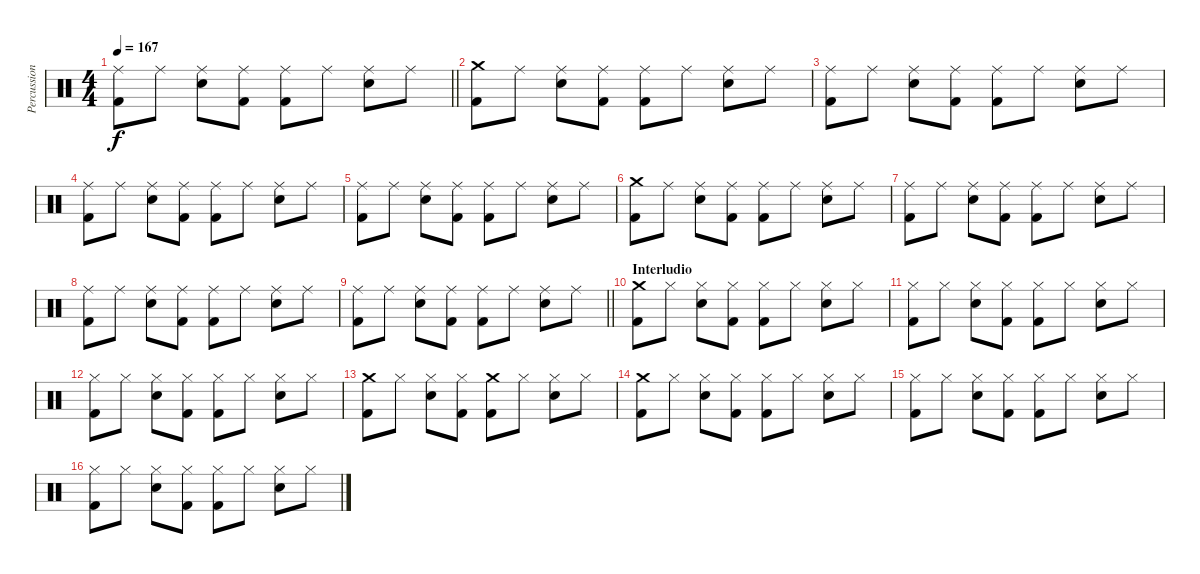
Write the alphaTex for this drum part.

\track ("Percussion" "Percussion") {instrument percussion}
\staff {score}
\articulation defaults
\ts (4 4)
\tempo 167
\clef neutral
\barLineRight lightlight
\ks c
("Ride (middle)" "Kick (hit) 2").8{dy f} "Ride (middle)".8 ("Ride (middle)" "Snare (hit) 2").8 ("Ride (middle)" "Kick (hit) 2").8 ("Ride (middle)" "Kick (hit) 2").8 "Ride (middle)".8 ("Ride (middle)" "Snare (hit) 2").8 "Ride (middle)".8 |
("Crash medium (hit)" "Kick (hit) 2").8 "Ride (middle)".8 ("Ride (middle)" "Snare (hit) 2").8 ("Ride (middle)" "Kick (hit) 2").8 ("Ride (middle)" "Kick (hit) 2").8 "Ride (middle)".8 ("Ride (middle)" "Snare (hit) 2").8 "Ride (middle)".8 |
("Ride (middle)" "Kick (hit) 2").8 "Ride (middle)".8 ("Ride (middle)" "Snare (hit) 2").8 ("Ride (middle)" "Kick (hit) 2").8 ("Ride (middle)" "Kick (hit) 2").8 "Ride (middle)".8 ("Ride (middle)" "Snare (hit) 2").8 "Ride (middle)".8 |
("Ride (middle)" "Kick (hit) 2").8 "Ride (middle)".8 ("Ride (middle)" "Snare (hit) 2").8 ("Ride (middle)" "Kick (hit) 2").8 ("Ride (middle)" "Kick (hit) 2").8 "Ride (middle)".8 ("Ride (middle)" "Snare (hit) 2").8 "Ride (middle)".8 |
("Ride (middle)" "Kick (hit) 2").8 "Ride (middle)".8 ("Ride (middle)" "Snare (hit) 2").8 ("Ride (middle)" "Kick (hit) 2").8 ("Ride (middle)" "Kick (hit) 2").8 "Ride (middle)".8 ("Ride (middle)" "Snare (hit) 2").8 "Ride (middle)".8 |
("Crash medium (hit)" "Kick (hit) 2").8 "Ride (middle)".8 ("Ride (middle)" "Snare (hit) 2").8 ("Ride (middle)" "Kick (hit) 2").8 ("Ride (middle)" "Kick (hit) 2").8 "Ride (middle)".8 ("Ride (middle)" "Snare (hit) 2").8 "Ride (middle)".8 |
("Ride (middle)" "Kick (hit) 2").8 "Ride (middle)".8 ("Ride (middle)" "Snare (hit) 2").8 ("Ride (middle)" "Kick (hit) 2").8 ("Ride (middle)" "Kick (hit) 2").8 "Ride (middle)".8 ("Ride (middle)" "Snare (hit) 2").8 "Ride (middle)".8 |
("Ride (middle)" "Kick (hit) 2").8 "Ride (middle)".8 ("Ride (middle)" "Snare (hit) 2").8 ("Ride (middle)" "Kick (hit) 2").8 ("Ride (middle)" "Kick (hit) 2").8 "Ride (middle)".8 ("Ride (middle)" "Snare (hit) 2").8 "Ride (middle)".8 |
\barLineRight lightlight
("Ride (middle)" "Kick (hit) 2").8 "Ride (middle)".8 ("Ride (middle)" "Snare (hit) 2").8 ("Ride (middle)" "Kick (hit) 2").8 ("Ride (middle)" "Kick (hit) 2").8 "Ride (middle)".8 ("Ride (middle)" "Snare (hit) 2").8 "Ride (middle)".8 |
\section ("" "Interludio")
("Crash medium (hit)" "Kick (hit) 2").8 "Hi-Hat (closed)".8 ("Hi-Hat (closed)" "Snare (hit) 2").8 ("Hi-Hat (closed)" "Kick (hit) 2").8 ("Hi-Hat (closed)" "Kick (hit) 2").8 "Hi-Hat (closed)".8 ("Hi-Hat (closed)" "Snare (hit) 2").8 "Hi-Hat (closed)".8 |
("Hi-Hat (closed)" "Kick (hit) 2").8 "Hi-Hat (closed)".8 ("Hi-Hat (closed)" "Snare (hit) 2").8 ("Hi-Hat (closed)" "Kick (hit) 2").8 ("Hi-Hat (closed)" "Kick (hit) 2").8 "Hi-Hat (closed)".8 ("Hi-Hat (closed)" "Snare (hit) 2").8 "Hi-Hat (closed)".8 |
("Hi-Hat (closed)" "Kick (hit) 2").8 "Hi-Hat (closed)".8 ("Hi-Hat (closed)" "Snare (hit) 2").8 ("Hi-Hat (closed)" "Kick (hit) 2").8 ("Hi-Hat (closed)" "Kick (hit) 2").8 "Hi-Hat (closed)".8 ("Hi-Hat (closed)" "Snare (hit) 2").8 "Hi-Hat (closed)".8 |
("Crash medium (hit)" "Kick (hit) 2").8 "Hi-Hat (closed)".8 ("Hi-Hat (closed)" "Snare (hit) 2").8 ("Hi-Hat (closed)" "Kick (hit) 2").8 ("Crash medium (hit)" "Kick (hit) 2").8 "Hi-Hat (closed)".8 ("Hi-Hat (closed)" "Snare (hit) 2").8 "Hi-Hat (closed)".8 |
("Crash medium (hit)" "Kick (hit) 2").8 "Hi-Hat (closed)".8 ("Hi-Hat (closed)" "Snare (hit) 2").8 ("Hi-Hat (closed)" "Kick (hit) 2").8 ("Hi-Hat (closed)" "Kick (hit) 2").8 "Hi-Hat (closed)".8 ("Hi-Hat (closed)" "Snare (hit) 2").8 "Hi-Hat (closed)".8 |
("Hi-Hat (closed)" "Kick (hit) 2").8 "Hi-Hat (closed)".8 ("Hi-Hat (closed)" "Snare (hit) 2").8 ("Hi-Hat (closed)" "Kick (hit) 2").8 ("Hi-Hat (closed)" "Kick (hit) 2").8 "Hi-Hat (closed)".8 ("Hi-Hat (closed)" "Snare (hit) 2").8 "Hi-Hat (closed)".8 |
("Hi-Hat (closed)" "Kick (hit) 2").8 "Hi-Hat (closed)".8 ("Hi-Hat (closed)" "Snare (hit) 2").8 ("Hi-Hat (closed)" "Kick (hit) 2").8 ("Hi-Hat (closed)" "Kick (hit) 2").8 "Hi-Hat (closed)".8 ("Hi-Hat (closed)" "Snare (hit) 2").8 "Hi-Hat (closed)".8
